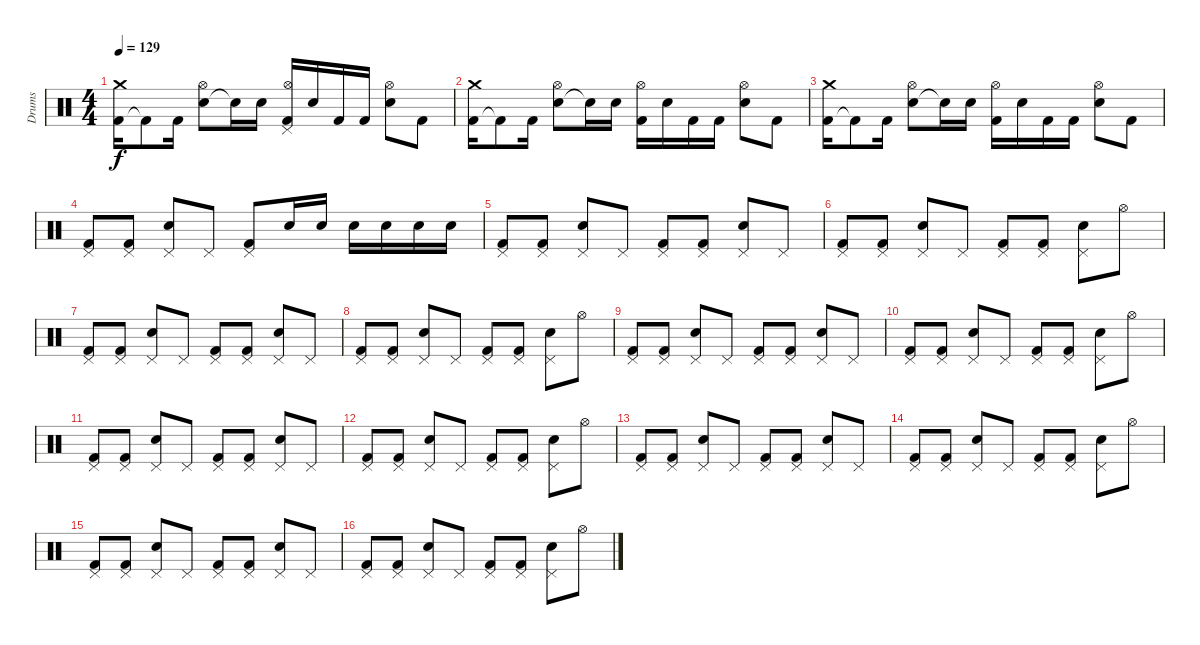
\track ("Drums" "Drums") {instrument percussion}
\staff {score}
\articulation defaults
\ts (4 4)
\tempo 129
\clef neutral
\ks c
("Kick (hit) 2" "Crash medium (hit)").16{dy f} "Kick (hit) 2"{t}.8 "Kick (hit) 2".16 ("Snare (hit) 2" "Hi-Hat (open)").8 "Snare (hit)"{t}.16 "Snare (hit) 2".16 ("Kick (hit) 2" "Pedal Hi-Hat (hit)" "Hi-Hat (open)").16 "Snare (hit) 2".16 "Kick (hit) 2".16 "Kick (hit) 2".16 ("Snare (hit) 2" "Hi-Hat (open)").8 "Kick (hit) 2".8 |
("Kick (hit) 2" "Crash medium (hit)").16 "Kick (hit) 2"{t}.8 "Kick (hit) 2".16 ("Snare (hit) 2" "Hi-Hat (open)").8 "Snare (hit)"{t}.16 "Snare (hit) 2".16 ("Kick (hit) 2" "Hi-Hat (open)").16 "Snare (hit) 2".16 "Kick (hit) 2".16 "Kick (hit) 2".16 ("Snare (hit) 2" "Hi-Hat (open)").8 "Kick (hit) 2".8 |
("Kick (hit) 2" "Crash medium (hit)").16 "Kick (hit) 2"{t}.8 "Kick (hit) 2".16 ("Snare (hit) 2" "Hi-Hat (open)").8 "Snare (hit)"{t}.16 "Snare (hit) 2".16 ("Kick (hit) 2" "Hi-Hat (open)").16 "Snare (hit) 2".16 "Kick (hit) 2".16 "Kick (hit) 2".16 ("Snare (hit) 2" "Hi-Hat (open)").8 "Kick (hit) 2".8 |
("Kick (hit) 2" "Pedal Hi-Hat (hit)").8 ("Kick (hit) 2" "Pedal Hi-Hat (hit)").8 ("Snare (hit) 2" "Pedal Hi-Hat (hit)").8 "Pedal Hi-Hat (hit)".8 ("Kick (hit) 2" "Pedal Hi-Hat (hit)").8 "Snare (hit) 2".16 "Snare (hit) 2".16 "Snare (hit) 2".16 "Snare (hit) 2".16 "Snare (hit) 2".16 "Snare (hit) 2".16 |
("Kick (hit) 2" "Pedal Hi-Hat (hit)").8 ("Kick (hit) 2" "Pedal Hi-Hat (hit)").8 ("Snare (hit) 2" "Pedal Hi-Hat (hit)").8 "Pedal Hi-Hat (hit)".8 ("Kick (hit) 2" "Pedal Hi-Hat (hit)").8 ("Kick (hit) 2" "Pedal Hi-Hat (hit)").8 ("Snare (hit) 2" "Pedal Hi-Hat (hit)").8 "Pedal Hi-Hat (hit)".8 |
("Kick (hit) 2" "Pedal Hi-Hat (hit)").8 ("Kick (hit) 2" "Pedal Hi-Hat (hit)").8 ("Snare (hit) 2" "Pedal Hi-Hat (hit)").8 "Pedal Hi-Hat (hit)".8 ("Kick (hit) 2" "Pedal Hi-Hat (hit)").8 ("Kick (hit) 2" "Pedal Hi-Hat (hit)").8 ("Snare (hit) 2" "Pedal Hi-Hat (hit)").8 "Hi-Hat (open)".8 |
("Kick (hit) 2" "Pedal Hi-Hat (hit)").8 ("Kick (hit) 2" "Pedal Hi-Hat (hit)").8 ("Snare (hit) 2" "Pedal Hi-Hat (hit)").8 "Pedal Hi-Hat (hit)".8 ("Kick (hit) 2" "Pedal Hi-Hat (hit)").8 ("Kick (hit) 2" "Pedal Hi-Hat (hit)").8 ("Snare (hit) 2" "Pedal Hi-Hat (hit)").8 "Pedal Hi-Hat (hit)".8 |
("Kick (hit) 2" "Pedal Hi-Hat (hit)").8 ("Kick (hit) 2" "Pedal Hi-Hat (hit)").8 ("Snare (hit) 2" "Pedal Hi-Hat (hit)").8 "Pedal Hi-Hat (hit)".8 ("Kick (hit) 2" "Pedal Hi-Hat (hit)").8 ("Kick (hit) 2" "Pedal Hi-Hat (hit)").8 ("Snare (hit) 2" "Pedal Hi-Hat (hit)").8 "Hi-Hat (open)".8 |
("Kick (hit) 2" "Pedal Hi-Hat (hit)").8 ("Kick (hit) 2" "Pedal Hi-Hat (hit)").8 ("Snare (hit) 2" "Pedal Hi-Hat (hit)").8 "Pedal Hi-Hat (hit)".8 ("Kick (hit) 2" "Pedal Hi-Hat (hit)").8 ("Kick (hit) 2" "Pedal Hi-Hat (hit)").8 ("Snare (hit) 2" "Pedal Hi-Hat (hit)").8 "Pedal Hi-Hat (hit)".8 |
("Kick (hit) 2" "Pedal Hi-Hat (hit)").8 ("Kick (hit) 2" "Pedal Hi-Hat (hit)").8 ("Snare (hit) 2" "Pedal Hi-Hat (hit)").8 "Pedal Hi-Hat (hit)".8 ("Kick (hit) 2" "Pedal Hi-Hat (hit)").8 ("Kick (hit) 2" "Pedal Hi-Hat (hit)").8 ("Snare (hit) 2" "Pedal Hi-Hat (hit)").8 "Hi-Hat (open)".8 |
("Kick (hit) 2" "Pedal Hi-Hat (hit)").8 ("Kick (hit) 2" "Pedal Hi-Hat (hit)").8 ("Snare (hit) 2" "Pedal Hi-Hat (hit)").8 "Pedal Hi-Hat (hit)".8 ("Kick (hit) 2" "Pedal Hi-Hat (hit)").8 ("Kick (hit) 2" "Pedal Hi-Hat (hit)").8 ("Snare (hit) 2" "Pedal Hi-Hat (hit)").8 "Pedal Hi-Hat (hit)".8 |
("Kick (hit) 2" "Pedal Hi-Hat (hit)").8 ("Kick (hit) 2" "Pedal Hi-Hat (hit)").8 ("Snare (hit) 2" "Pedal Hi-Hat (hit)").8 "Pedal Hi-Hat (hit)".8 ("Kick (hit) 2" "Pedal Hi-Hat (hit)").8 ("Kick (hit) 2" "Pedal Hi-Hat (hit)").8 ("Snare (hit) 2" "Pedal Hi-Hat (hit)").8 "Hi-Hat (open)".8 |
("Kick (hit) 2" "Pedal Hi-Hat (hit)").8 ("Kick (hit) 2" "Pedal Hi-Hat (hit)").8 ("Snare (hit) 2" "Pedal Hi-Hat (hit)").8 "Pedal Hi-Hat (hit)".8 ("Kick (hit) 2" "Pedal Hi-Hat (hit)").8 ("Kick (hit) 2" "Pedal Hi-Hat (hit)").8 ("Snare (hit) 2" "Pedal Hi-Hat (hit)").8 "Pedal Hi-Hat (hit)".8 |
("Kick (hit) 2" "Pedal Hi-Hat (hit)").8 ("Kick (hit) 2" "Pedal Hi-Hat (hit)").8 ("Snare (hit) 2" "Pedal Hi-Hat (hit)").8 "Pedal Hi-Hat (hit)".8 ("Kick (hit) 2" "Pedal Hi-Hat (hit)").8 ("Kick (hit) 2" "Pedal Hi-Hat (hit)").8 ("Snare (hit) 2" "Pedal Hi-Hat (hit)").8 "Hi-Hat (open)".8 |
("Kick (hit) 2" "Pedal Hi-Hat (hit)").8 ("Kick (hit) 2" "Pedal Hi-Hat (hit)").8 ("Snare (hit) 2" "Pedal Hi-Hat (hit)").8 "Pedal Hi-Hat (hit)".8 ("Kick (hit) 2" "Pedal Hi-Hat (hit)").8 ("Kick (hit) 2" "Pedal Hi-Hat (hit)").8 ("Snare (hit) 2" "Pedal Hi-Hat (hit)").8 "Pedal Hi-Hat (hit)".8 |
("Kick (hit) 2" "Pedal Hi-Hat (hit)").8 ("Kick (hit) 2" "Pedal Hi-Hat (hit)").8 ("Snare (hit) 2" "Pedal Hi-Hat (hit)").8 "Pedal Hi-Hat (hit)".8 ("Kick (hit) 2" "Pedal Hi-Hat (hit)").8 ("Kick (hit) 2" "Pedal Hi-Hat (hit)").8 ("Snare (hit) 2" "Pedal Hi-Hat (hit)").8 "Hi-Hat (open)".8
